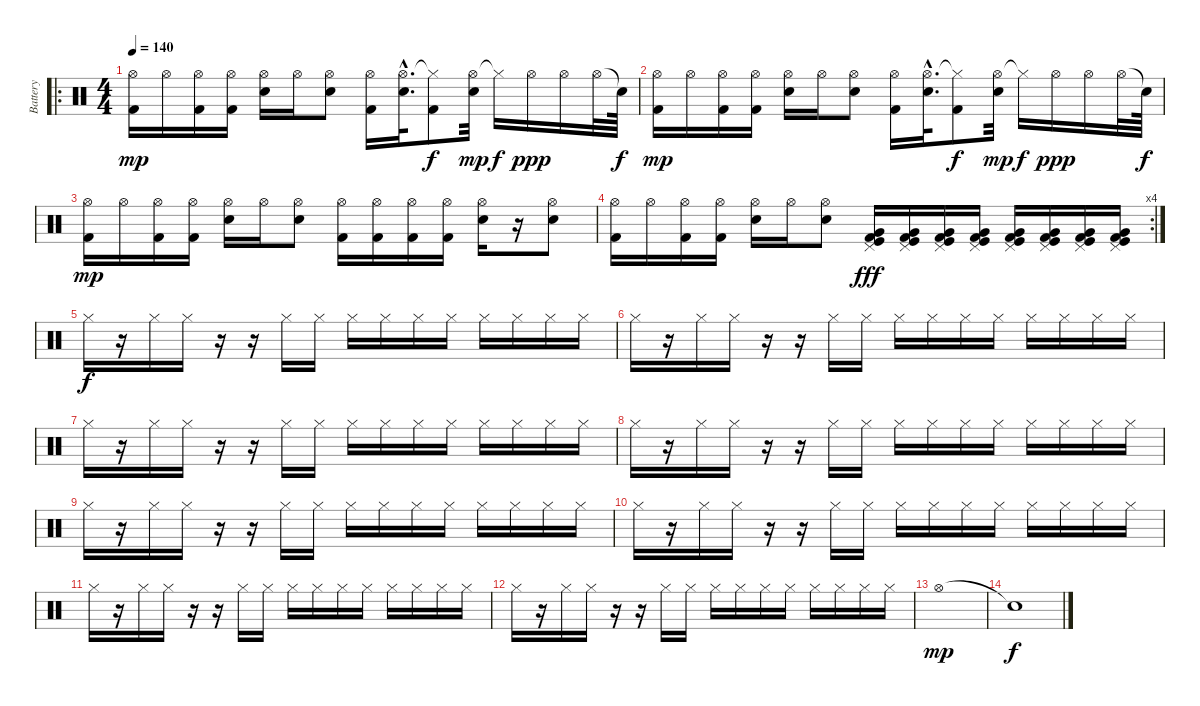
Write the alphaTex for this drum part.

\track ("Battery" "Battery") {instrument percussion}
\staff {score}
\articulation defaults
\ro
\ts (4 4)
\tempo 140
\clef neutral
\ks c
("Hi-Hat (open)" "Kick (hit) 2").16{dy mp} "Hi-Hat (open)".16 ("Hi-Hat (open)" "Kick (hit) 2").16 ("Hi-Hat (open)" "Kick (hit) 2").16 ("Hi-Hat (open)" "Electric Snare (hit)").16 "Hi-Hat (open)".16 ("Hi-Hat (open)" "Electric Snare (hit)").8 ("Hi-Hat (open)" "Kick (hit) 2").16 ("Hi-Hat (open)"{hac} "Electric Snare (hit)"{hac}).32{d} ("Hi-Hat (closed)"{t} "Kick (hit) 2").8{dy f} ("Hi-Hat (open)" "Electric Snare (hit)").32{dy mp} "Hi-Hat (closed)"{t}.16{dy f} "Hi-Hat (open)".16{dy ppp} "Hi-Hat (open)".16 "Hi-Hat (open)".32 "Snare (hit)"{t}.64{dy f} |
("Hi-Hat (open)" "Kick (hit) 2").16{dy mp} "Hi-Hat (open)".16 ("Hi-Hat (open)" "Kick (hit) 2").16 ("Hi-Hat (open)" "Kick (hit) 2").16 ("Hi-Hat (open)" "Electric Snare (hit)").16 "Hi-Hat (open)".16 ("Hi-Hat (open)" "Electric Snare (hit)").8 ("Hi-Hat (open)" "Kick (hit) 2").16 ("Hi-Hat (open)"{hac} "Electric Snare (hit)"{hac}).32{d} ("Hi-Hat (closed)"{t} "Kick (hit) 2").8{dy f} ("Hi-Hat (open)" "Electric Snare (hit)").32{dy mp} "Hi-Hat (closed)"{t}.16{dy f} "Hi-Hat (open)".16{dy ppp} "Hi-Hat (open)".16 "Hi-Hat (open)".32 "Snare (hit)"{t}.64{dy f} |
("Hi-Hat (open)" "Kick (hit) 2").16{dy mp} "Hi-Hat (open)".16 ("Hi-Hat (open)" "Kick (hit) 2").16 ("Hi-Hat (open)" "Kick (hit) 2").16 ("Hi-Hat (open)" "Electric Snare (hit)").16 "Hi-Hat (open)".16 ("Hi-Hat (open)" "Electric Snare (hit)").8 ("Hi-Hat (open)" "Kick (hit) 2").16 ("Hi-Hat (open)" "Kick (hit) 2").16 ("Hi-Hat (open)" "Kick (hit) 2").16 ("Hi-Hat (open)" "Kick (hit) 2").16 ("Hi-Hat (open)" "Electric Snare (hit)").16 r.16 ("Hi-Hat (open)" "Electric Snare (hit)").8 |
\rc 4
("Hi-Hat (open)" "Kick (hit) 2").16 "Hi-Hat (open)".16 ("Hi-Hat (open)" "Kick (hit) 2").16 ("Hi-Hat (open)" "Kick (hit) 2").16 ("Hi-Hat (open)" "Electric Snare (hit)").16 "Hi-Hat (open)".16 ("Hi-Hat (open)" "Electric Snare (hit)").8 ("Pedal Hi-Hat (hit)" "Kick (hit) 2" "Kick (hit)" "Very Low Tom (hit)").16{dy fff} ("Pedal Hi-Hat (hit)" "Kick (hit) 2" "Kick (hit)" "Very Low Tom (hit)").16 ("Pedal Hi-Hat (hit)" "Kick (hit) 2" "Kick (hit)" "Very Low Tom (hit)").16 ("Pedal Hi-Hat (hit)" "Kick (hit) 2" "Kick (hit)" "Very Low Tom (hit)").16 ("Pedal Hi-Hat (hit)" "Kick (hit) 2" "Kick (hit)" "Very Low Tom (hit)").16 ("Pedal Hi-Hat (hit)" "Kick (hit) 2" "Kick (hit)" "Very Low Tom (hit)").16 ("Pedal Hi-Hat (hit)" "Kick (hit) 2" "Kick (hit)" "Very Low Tom (hit)").16 ("Pedal Hi-Hat (hit)" "Kick (hit) 2" "Kick (hit)" "Very Low Tom (hit)").16 |
"Hi-Hat (closed)".16{dy f} r.16 "Hi-Hat (closed)".16 "Hi-Hat (closed)".16 r.16 r.16 "Hi-Hat (closed)".16 "Hi-Hat (closed)".16 "Hi-Hat (closed)".16 "Hi-Hat (closed)".16 "Hi-Hat (closed)".16 "Hi-Hat (closed)".16 "Hi-Hat (closed)".16 "Hi-Hat (closed)".16 "Hi-Hat (closed)".16 "Hi-Hat (closed)".16 |
"Hi-Hat (closed)".16 r.16 "Hi-Hat (closed)".16 "Hi-Hat (closed)".16 r.16 r.16 "Hi-Hat (closed)".16 "Hi-Hat (closed)".16 "Hi-Hat (closed)".16 "Hi-Hat (closed)".16 "Hi-Hat (closed)".16 "Hi-Hat (closed)".16 "Hi-Hat (closed)".16 "Hi-Hat (closed)".16 "Hi-Hat (closed)".16 "Hi-Hat (closed)".16 |
"Hi-Hat (closed)".16 r.16 "Hi-Hat (closed)".16 "Hi-Hat (closed)".16 r.16 r.16 "Hi-Hat (closed)".16 "Hi-Hat (closed)".16 "Hi-Hat (closed)".16 "Hi-Hat (closed)".16 "Hi-Hat (closed)".16 "Hi-Hat (closed)".16 "Hi-Hat (closed)".16 "Hi-Hat (closed)".16 "Hi-Hat (closed)".16 "Hi-Hat (closed)".16 |
"Hi-Hat (closed)".16 r.16 "Hi-Hat (closed)".16 "Hi-Hat (closed)".16 r.16 r.16 "Hi-Hat (closed)".16 "Hi-Hat (closed)".16 "Hi-Hat (closed)".16 "Hi-Hat (closed)".16 "Hi-Hat (closed)".16 "Hi-Hat (closed)".16 "Hi-Hat (closed)".16 "Hi-Hat (closed)".16 "Hi-Hat (closed)".16 "Hi-Hat (closed)".16 |
"Hi-Hat (closed)".16 r.16 "Hi-Hat (closed)".16 "Hi-Hat (closed)".16 r.16 r.16 "Hi-Hat (closed)".16 "Hi-Hat (closed)".16 "Hi-Hat (closed)".16 "Hi-Hat (closed)".16 "Hi-Hat (closed)".16 "Hi-Hat (closed)".16 "Hi-Hat (closed)".16 "Hi-Hat (closed)".16 "Hi-Hat (closed)".16 "Hi-Hat (closed)".16 |
"Hi-Hat (closed)".16 r.16 "Hi-Hat (closed)".16 "Hi-Hat (closed)".16 r.16 r.16 "Hi-Hat (closed)".16 "Hi-Hat (closed)".16 "Hi-Hat (closed)".16 "Hi-Hat (closed)".16 "Hi-Hat (closed)".16 "Hi-Hat (closed)".16 "Hi-Hat (closed)".16 "Hi-Hat (closed)".16 "Hi-Hat (closed)".16 "Hi-Hat (closed)".16 |
"Hi-Hat (closed)".16 r.16 "Hi-Hat (closed)".16 "Hi-Hat (closed)".16 r.16 r.16 "Hi-Hat (closed)".16 "Hi-Hat (closed)".16 "Hi-Hat (closed)".16 "Hi-Hat (closed)".16 "Hi-Hat (closed)".16 "Hi-Hat (closed)".16 "Hi-Hat (closed)".16 "Hi-Hat (closed)".16 "Hi-Hat (closed)".16 "Hi-Hat (closed)".16 |
"Hi-Hat (closed)".16 r.16 "Hi-Hat (closed)".16 "Hi-Hat (closed)".16 r.16 r.16 "Hi-Hat (closed)".16 "Hi-Hat (closed)".16 "Hi-Hat (closed)".16 "Hi-Hat (closed)".16 "Hi-Hat (closed)".16 "Hi-Hat (closed)".16 "Hi-Hat (closed)".16 "Hi-Hat (closed)".16 "Hi-Hat (closed)".16 "Hi-Hat (closed)".16 |
"Hi-Hat (open)".1{dy mp} |
"Snare (hit)"{t}.1{dy f}
